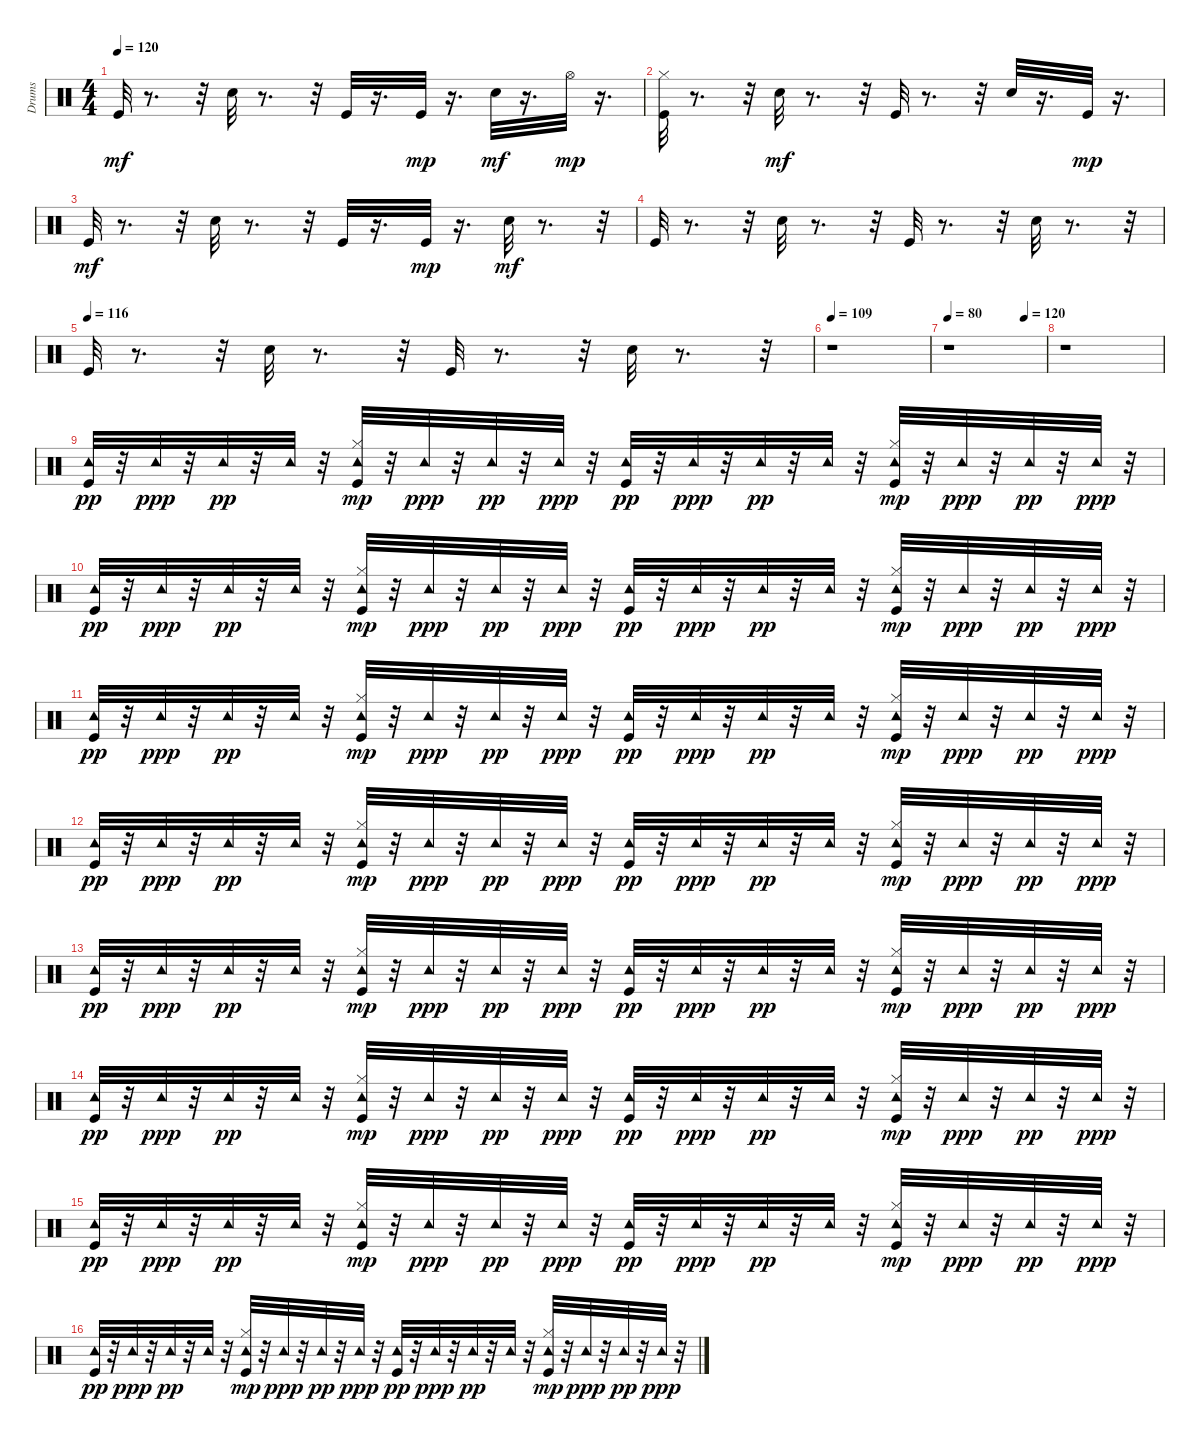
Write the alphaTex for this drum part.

\track ("Drums" "Drums") {instrument percussion}
\staff {score}
\articulation defaults
\ts (4 4)
\tempo 120
\clef neutral
\ks c "Kick (hit)".32{dy mf}
r.8{d} r.32 "Electric Snare (hit)".32 r.8{d} r.32 "Kick (hit)".32 r.16{d} "Kick (hit)".32{dy mp} r.16{d} "Electric Snare (hit)".32{dy mf} r.16{d} "Hi-Hat (open)".32{dy mp} r.16{d} |
("Kick (hit)" "Hi-Hat (closed)").32 r.8{d} r.32 "Electric Snare (hit)".32{dy mf} r.8{d} r.32 "Kick (hit)".32 r.8{d} r.32 "Electric Snare (hit)".32 r.16{d} "Kick (hit)".32{dy mp} r.16{d} |
"Kick (hit)".32{dy mf} r.8{d} r.32 "Electric Snare (hit)".32 r.8{d} r.32 "Kick (hit)".32 r.16{d} "Kick (hit)".32{dy mp} r.16{d} "Electric Snare (hit)".32{dy mf} r.8{d} r.32 |
"Kick (hit)".32 r.8{d} r.32 "Electric Snare (hit)".32 r.8{d} r.32 "Kick (hit)".32 r.8{d} r.32 "Electric Snare (hit)".32 r.8{d} r.32 |
\tempo (116)
"Kick (hit)".32 r.8{d} r.32 "Electric Snare (hit)".32 r.8{d} r.32 "Kick (hit)".32 r.8{d} r.32 "Electric Snare (hit)".32 r.8{d} r.32 |
\tempo 109
r.1 |
\tempo 80
\tempo (120 0.78125)
r.1 |
r.1 |
("Kick (hit)" "Tambourine (hit)").32{dy pp} r.32 "Tambourine (hit)".32{dy ppp} r.32 "Tambourine (hit)".32{dy pp} r.32 "Tambourine (hit)".32 r.32 ("Kick (hit)" "Hi-Hat (closed)" "Tambourine (hit)").32{dy mp} r.32 "Tambourine (hit)".32{dy ppp} r.32 "Tambourine (hit)".32{dy pp} r.32 "Tambourine (hit)".32{dy ppp} r.32 ("Kick (hit)" "Tambourine (hit)").32{dy pp} r.32 "Tambourine (hit)".32{dy ppp} r.32 "Tambourine (hit)".32{dy pp} r.32 "Tambourine (hit)".32 r.32 ("Kick (hit)" "Hi-Hat (closed)" "Tambourine (hit)").32{dy mp} r.32 "Tambourine (hit)".32{dy ppp} r.32 "Tambourine (hit)".32{dy pp} r.32 "Tambourine (hit)".32{dy ppp} r.32 |
("Kick (hit)" "Tambourine (hit)").32{dy pp} r.32 "Tambourine (hit)".32{dy ppp} r.32 "Tambourine (hit)".32{dy pp} r.32 "Tambourine (hit)".32 r.32 ("Kick (hit)" "Hi-Hat (closed)" "Tambourine (hit)").32{dy mp} r.32 "Tambourine (hit)".32{dy ppp} r.32 "Tambourine (hit)".32{dy pp} r.32 "Tambourine (hit)".32{dy ppp} r.32 ("Kick (hit)" "Tambourine (hit)").32{dy pp} r.32 "Tambourine (hit)".32{dy ppp} r.32 "Tambourine (hit)".32{dy pp} r.32 "Tambourine (hit)".32 r.32 ("Kick (hit)" "Hi-Hat (closed)" "Tambourine (hit)").32{dy mp} r.32 "Tambourine (hit)".32{dy ppp} r.32 "Tambourine (hit)".32{dy pp} r.32 "Tambourine (hit)".32{dy ppp} r.32 |
("Kick (hit)" "Tambourine (hit)").32{dy pp} r.32 "Tambourine (hit)".32{dy ppp} r.32 "Tambourine (hit)".32{dy pp} r.32 "Tambourine (hit)".32 r.32 ("Kick (hit)" "Hi-Hat (closed)" "Tambourine (hit)").32{dy mp} r.32 "Tambourine (hit)".32{dy ppp} r.32 "Tambourine (hit)".32{dy pp} r.32 "Tambourine (hit)".32{dy ppp} r.32 ("Kick (hit)" "Tambourine (hit)").32{dy pp} r.32 "Tambourine (hit)".32{dy ppp} r.32 "Tambourine (hit)".32{dy pp} r.32 "Tambourine (hit)".32 r.32 ("Kick (hit)" "Hi-Hat (closed)" "Tambourine (hit)").32{dy mp} r.32 "Tambourine (hit)".32{dy ppp} r.32 "Tambourine (hit)".32{dy pp} r.32 "Tambourine (hit)".32{dy ppp} r.32 |
("Kick (hit)" "Tambourine (hit)").32{dy pp} r.32 "Tambourine (hit)".32{dy ppp} r.32 "Tambourine (hit)".32{dy pp} r.32 "Tambourine (hit)".32 r.32 ("Kick (hit)" "Hi-Hat (closed)" "Tambourine (hit)").32{dy mp} r.32 "Tambourine (hit)".32{dy ppp} r.32 "Tambourine (hit)".32{dy pp} r.32 "Tambourine (hit)".32{dy ppp} r.32 ("Kick (hit)" "Tambourine (hit)").32{dy pp} r.32 "Tambourine (hit)".32{dy ppp} r.32 "Tambourine (hit)".32{dy pp} r.32 "Tambourine (hit)".32 r.32 ("Kick (hit)" "Hi-Hat (closed)" "Tambourine (hit)").32{dy mp} r.32 "Tambourine (hit)".32{dy ppp} r.32 "Tambourine (hit)".32{dy pp} r.32 "Tambourine (hit)".32{dy ppp} r.32 |
("Kick (hit)" "Tambourine (hit)").32{dy pp} r.32 "Tambourine (hit)".32{dy ppp} r.32 "Tambourine (hit)".32{dy pp} r.32 "Tambourine (hit)".32 r.32 ("Kick (hit)" "Hi-Hat (closed)" "Tambourine (hit)").32{dy mp} r.32 "Tambourine (hit)".32{dy ppp} r.32 "Tambourine (hit)".32{dy pp} r.32 "Tambourine (hit)".32{dy ppp} r.32 ("Kick (hit)" "Tambourine (hit)").32{dy pp} r.32 "Tambourine (hit)".32{dy ppp} r.32 "Tambourine (hit)".32{dy pp} r.32 "Tambourine (hit)".32 r.32 ("Kick (hit)" "Hi-Hat (closed)" "Tambourine (hit)").32{dy mp} r.32 "Tambourine (hit)".32{dy ppp} r.32 "Tambourine (hit)".32{dy pp} r.32 "Tambourine (hit)".32{dy ppp} r.32 |
("Kick (hit)" "Tambourine (hit)").32{dy pp} r.32 "Tambourine (hit)".32{dy ppp} r.32 "Tambourine (hit)".32{dy pp} r.32 "Tambourine (hit)".32 r.32 ("Kick (hit)" "Hi-Hat (closed)" "Tambourine (hit)").32{dy mp} r.32 "Tambourine (hit)".32{dy ppp} r.32 "Tambourine (hit)".32{dy pp} r.32 "Tambourine (hit)".32{dy ppp} r.32 ("Kick (hit)" "Tambourine (hit)").32{dy pp} r.32 "Tambourine (hit)".32{dy ppp} r.32 "Tambourine (hit)".32{dy pp} r.32 "Tambourine (hit)".32 r.32 ("Kick (hit)" "Hi-Hat (closed)" "Tambourine (hit)").32{dy mp} r.32 "Tambourine (hit)".32{dy ppp} r.32 "Tambourine (hit)".32{dy pp} r.32 "Tambourine (hit)".32{dy ppp} r.32 |
("Kick (hit)" "Tambourine (hit)").32{dy pp} r.32 "Tambourine (hit)".32{dy ppp} r.32 "Tambourine (hit)".32{dy pp} r.32 "Tambourine (hit)".32 r.32 ("Kick (hit)" "Hi-Hat (closed)" "Tambourine (hit)").32{dy mp} r.32 "Tambourine (hit)".32{dy ppp} r.32 "Tambourine (hit)".32{dy pp} r.32 "Tambourine (hit)".32{dy ppp} r.32 ("Kick (hit)" "Tambourine (hit)").32{dy pp} r.32 "Tambourine (hit)".32{dy ppp} r.32 "Tambourine (hit)".32{dy pp} r.32 "Tambourine (hit)".32 r.32 ("Kick (hit)" "Hi-Hat (closed)" "Tambourine (hit)").32{dy mp} r.32 "Tambourine (hit)".32{dy ppp} r.32 "Tambourine (hit)".32{dy pp} r.32 "Tambourine (hit)".32{dy ppp} r.32 |
("Kick (hit)" "Tambourine (hit)").32{dy pp} r.32 "Tambourine (hit)".32{dy ppp} r.32 "Tambourine (hit)".32{dy pp} r.32 "Tambourine (hit)".32 r.32 ("Kick (hit)" "Hi-Hat (closed)" "Tambourine (hit)").32{dy mp} r.32 "Tambourine (hit)".32{dy ppp} r.32 "Tambourine (hit)".32{dy pp} r.32 "Tambourine (hit)".32{dy ppp} r.32 ("Kick (hit)" "Tambourine (hit)").32{dy pp} r.32 "Tambourine (hit)".32{dy ppp} r.32 "Tambourine (hit)".32{dy pp} r.32 "Tambourine (hit)".32 r.32 ("Kick (hit)" "Hi-Hat (closed)" "Tambourine (hit)").32{dy mp} r.32 "Tambourine (hit)".32{dy ppp} r.32 "Tambourine (hit)".32{dy pp} r.32 "Tambourine (hit)".32{dy ppp} r.32
